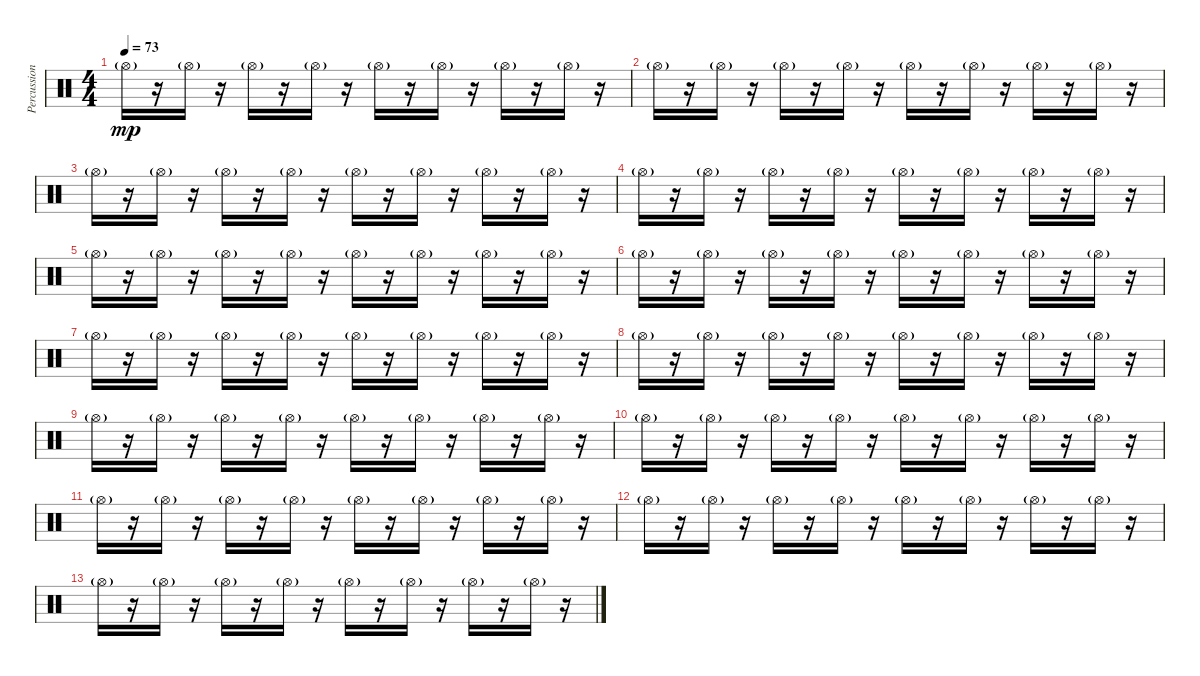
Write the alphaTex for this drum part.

\track ("Percussion" "Percussion") {instrument percussion}
\staff {score}
\articulation defaults
\ts (4 4)
\tempo 73
\clef neutral
\ks c "Hi-Hat (open)"{g}.16{dy mp}
r.16 "Hi-Hat (open)"{g}.16 r.16 "Hi-Hat (open)"{g}.16 r.16 "Hi-Hat (open)"{g}.16 r.16 "Hi-Hat (open)"{g}.16 r.16 "Hi-Hat (open)"{g}.16 r.16 "Hi-Hat (open)"{g}.16 r.16 "Hi-Hat (open)"{g}.16 r.16 |
"Hi-Hat (open)"{g}.16 r.16 "Hi-Hat (open)"{g}.16 r.16 "Hi-Hat (open)"{g}.16 r.16 "Hi-Hat (open)"{g}.16 r.16 "Hi-Hat (open)"{g}.16 r.16 "Hi-Hat (open)"{g}.16 r.16 "Hi-Hat (open)"{g}.16 r.16 "Hi-Hat (open)"{g}.16 r.16 |
"Hi-Hat (open)"{g}.16 r.16 "Hi-Hat (open)"{g}.16 r.16 "Hi-Hat (open)"{g}.16 r.16 "Hi-Hat (open)"{g}.16 r.16 "Hi-Hat (open)"{g}.16 r.16 "Hi-Hat (open)"{g}.16 r.16 "Hi-Hat (open)"{g}.16 r.16 "Hi-Hat (open)"{g}.16 r.16 |
"Hi-Hat (open)"{g}.16 r.16 "Hi-Hat (open)"{g}.16 r.16 "Hi-Hat (open)"{g}.16 r.16 "Hi-Hat (open)"{g}.16 r.16 "Hi-Hat (open)"{g}.16 r.16 "Hi-Hat (open)"{g}.16 r.16 "Hi-Hat (open)"{g}.16 r.16 "Hi-Hat (open)"{g}.16 r.16 |
"Hi-Hat (open)"{g}.16 r.16 "Hi-Hat (open)"{g}.16 r.16 "Hi-Hat (open)"{g}.16 r.16 "Hi-Hat (open)"{g}.16 r.16 "Hi-Hat (open)"{g}.16 r.16 "Hi-Hat (open)"{g}.16 r.16 "Hi-Hat (open)"{g}.16 r.16 "Hi-Hat (open)"{g}.16 r.16 |
"Hi-Hat (open)"{g}.16 r.16 "Hi-Hat (open)"{g}.16 r.16 "Hi-Hat (open)"{g}.16 r.16 "Hi-Hat (open)"{g}.16 r.16 "Hi-Hat (open)"{g}.16 r.16 "Hi-Hat (open)"{g}.16 r.16 "Hi-Hat (open)"{g}.16 r.16 "Hi-Hat (open)"{g}.16 r.16 |
"Hi-Hat (open)"{g}.16 r.16 "Hi-Hat (open)"{g}.16 r.16 "Hi-Hat (open)"{g}.16 r.16 "Hi-Hat (open)"{g}.16 r.16 "Hi-Hat (open)"{g}.16 r.16 "Hi-Hat (open)"{g}.16 r.16 "Hi-Hat (open)"{g}.16 r.16 "Hi-Hat (open)"{g}.16 r.16 |
"Hi-Hat (open)"{g}.16 r.16 "Hi-Hat (open)"{g}.16 r.16 "Hi-Hat (open)"{g}.16 r.16 "Hi-Hat (open)"{g}.16 r.16 "Hi-Hat (open)"{g}.16 r.16 "Hi-Hat (open)"{g}.16 r.16 "Hi-Hat (open)"{g}.16 r.16 "Hi-Hat (open)"{g}.16 r.16 |
"Hi-Hat (open)"{g}.16 r.16 "Hi-Hat (open)"{g}.16 r.16 "Hi-Hat (open)"{g}.16 r.16 "Hi-Hat (open)"{g}.16 r.16 "Hi-Hat (open)"{g}.16 r.16 "Hi-Hat (open)"{g}.16 r.16 "Hi-Hat (open)"{g}.16 r.16 "Hi-Hat (open)"{g}.16 r.16 |
"Hi-Hat (open)"{g}.16 r.16 "Hi-Hat (open)"{g}.16 r.16 "Hi-Hat (open)"{g}.16 r.16 "Hi-Hat (open)"{g}.16 r.16 "Hi-Hat (open)"{g}.16 r.16 "Hi-Hat (open)"{g}.16 r.16 "Hi-Hat (open)"{g}.16 r.16 "Hi-Hat (open)"{g}.16 r.16 |
"Hi-Hat (open)"{g}.16 r.16 "Hi-Hat (open)"{g}.16 r.16 "Hi-Hat (open)"{g}.16 r.16 "Hi-Hat (open)"{g}.16 r.16 "Hi-Hat (open)"{g}.16 r.16 "Hi-Hat (open)"{g}.16 r.16 "Hi-Hat (open)"{g}.16 r.16 "Hi-Hat (open)"{g}.16 r.16 |
"Hi-Hat (open)"{g}.16 r.16 "Hi-Hat (open)"{g}.16 r.16 "Hi-Hat (open)"{g}.16 r.16 "Hi-Hat (open)"{g}.16 r.16 "Hi-Hat (open)"{g}.16 r.16 "Hi-Hat (open)"{g}.16 r.16 "Hi-Hat (open)"{g}.16 r.16 "Hi-Hat (open)"{g}.16 r.16 |
"Hi-Hat (open)"{g}.16{volume 11} r.16 "Hi-Hat (open)"{g}.16 r.16 "Hi-Hat (open)"{g}.16 r.16 "Hi-Hat (open)"{g}.16 r.16 "Hi-Hat (open)"{g}.16 r.16 "Hi-Hat (open)"{g}.16 r.16 "Hi-Hat (open)"{g}.16 r.16 "Hi-Hat (open)"{g}.16 r.16
